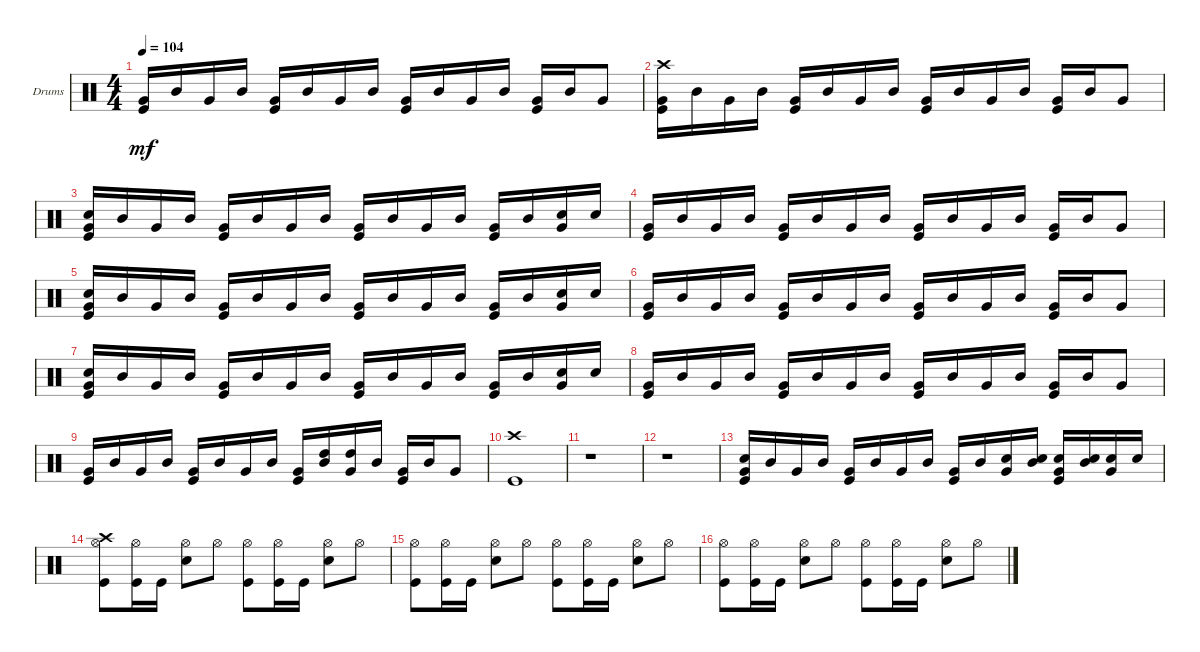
\defaultSystemsLayout 4
\bracketExtendMode groupsimilarinstruments
\firstSystemTrackNameOrientation horizontal
\otherSystemsTrackNameOrientation horizontal
\track ("Drum" "Drums") {instrument percussion}
\staff {score}
\articulation defaults
\ts (4 4)
\tempo 104
\clef neutral
\ks c
("Kick (hit)" "Very Low Tom (hit)").16{dy mf} "Mid Tom (hit)".16 "Very Low Tom (hit)".16 "Mid Tom (hit)".16 ("Kick (hit)" "Very Low Tom (hit)").16 "Mid Tom (hit)".16 "Very Low Tom (hit)".16 "Mid Tom (hit)".16 ("Very Low Tom (hit)" "Kick (hit)").16 "Mid Tom (hit)".16 "Very Low Tom (hit)".16 "Mid Tom (hit)".16 ("Very Low Tom (hit)" "Kick (hit)").16 "Mid Tom (hit)".16 "Very Low Tom (hit)".8 |
("Kick (hit)" "Very Low Tom (hit)" "Crash high (hit)").16 "Mid Tom (hit)".16 "Very Low Tom (hit)".16 "Mid Tom (hit)".16 ("Very Low Tom (hit)" "Kick (hit)").16 "Mid Tom (hit)".16 "Very Low Tom (hit)".16 "Mid Tom (hit)".16 ("Very Low Tom (hit)" "Kick (hit)").16 "Mid Tom (hit)".16 "Very Low Tom (hit)".16 "Mid Tom (hit)".16 ("Kick (hit)" "Very Low Tom (hit)").16 "Mid Tom (hit)".16 "Very Low Tom (hit)".8 |
("Kick (hit)" "Very Low Tom (hit)" "Snare (hit) 2").16 "Mid Tom (hit)".16 "Very Low Tom (hit)".16 "Mid Tom (hit)".16 ("Very Low Tom (hit)" "Kick (hit)").16 "Mid Tom (hit)".16 "Very Low Tom (hit)".16 "Mid Tom (hit)".16 ("Kick (hit)" "Very Low Tom (hit)").16 "Mid Tom (hit)".16 "Very Low Tom (hit)".16 "Mid Tom (hit)".16 ("Very Low Tom (hit)" "Kick (hit)").16 "Mid Tom (hit)".16 ("Snare (hit) 2" "Very Low Tom (hit)").16 "Snare (hit) 2".16 |
("Kick (hit)" "Very Low Tom (hit)").16 "Mid Tom (hit)".16 "Very Low Tom (hit)".16 "Mid Tom (hit)".16 ("Very Low Tom (hit)" "Kick (hit)").16 "Mid Tom (hit)".16 "Very Low Tom (hit)".16 "Mid Tom (hit)".16 ("Kick (hit)" "Very Low Tom (hit)").16 "Mid Tom (hit)".16 "Very Low Tom (hit)".16 "Mid Tom (hit)".16 ("Kick (hit)" "Very Low Tom (hit)").16 "Mid Tom (hit)".16 "Very Low Tom (hit)".8 |
("Kick (hit)" "Very Low Tom (hit)" "Snare (hit) 2").16 "Mid Tom (hit)".16 "Very Low Tom (hit)".16 "Mid Tom (hit)".16 ("Kick (hit)" "Very Low Tom (hit)").16 "Mid Tom (hit)".16 "Very Low Tom (hit)".16 "Mid Tom (hit)".16 ("Very Low Tom (hit)" "Kick (hit)").16 "Mid Tom (hit)".16 "Very Low Tom (hit)".16 "Mid Tom (hit)".16 ("Kick (hit)" "Very Low Tom (hit)").16 "Mid Tom (hit)".16 ("Snare (hit) 2" "Very Low Tom (hit)").16 "Snare (hit) 2".16 |
("Kick (hit)" "Very Low Tom (hit)").16 "Mid Tom (hit)".16 "Very Low Tom (hit)".16 "Mid Tom (hit)".16 ("Very Low Tom (hit)" "Kick (hit)").16 "Mid Tom (hit)".16 "Very Low Tom (hit)".16 "Mid Tom (hit)".16 ("Very Low Tom (hit)" "Kick (hit)").16 "Mid Tom (hit)".16 "Very Low Tom (hit)".16 "Mid Tom (hit)".16 ("Kick (hit)" "Very Low Tom (hit)").16 "Mid Tom (hit)".16 "Very Low Tom (hit)".8 |
("Kick (hit)" "Snare (hit) 2" "Very Low Tom (hit)").16 "Mid Tom (hit)".16 "Very Low Tom (hit)".16 "Mid Tom (hit)".16 ("Very Low Tom (hit)" "Kick (hit)").16 "Mid Tom (hit)".16 "Very Low Tom (hit)".16 "Mid Tom (hit)".16 ("Very Low Tom (hit)" "Kick (hit)").16 "Mid Tom (hit)".16 "Very Low Tom (hit)".16 "Mid Tom (hit)".16 ("Kick (hit)" "Very Low Tom (hit)").16 "Mid Tom (hit)".16 ("Snare (hit) 2" "Very Low Tom (hit)").16 "Snare (hit) 2".16 |
("Kick (hit)" "Very Low Tom (hit)").16 "Mid Tom (hit)".16 "Very Low Tom (hit)".16 "Mid Tom (hit)".16 ("Kick (hit)" "Very Low Tom (hit)").16 "Mid Tom (hit)".16 "Very Low Tom (hit)".16 "Mid Tom (hit)".16 ("Very Low Tom (hit)" "Kick (hit)").16 "Mid Tom (hit)".16 "Very Low Tom (hit)".16 "Mid Tom (hit)".16 ("Kick (hit)" "Very Low Tom (hit)").16 "Mid Tom (hit)".16 "Very Low Tom (hit)".8 |
("Very Low Tom (hit)" "Kick (hit)").16 "Mid Tom (hit)".16 "Very Low Tom (hit)".16 "Mid Tom (hit)".16 ("Very Low Tom (hit)" "Kick (hit)").16 "Mid Tom (hit)".16 "Very Low Tom (hit)".16 "Mid Tom (hit)".16 ("Kick (hit)" "Very Low Tom (hit)").16 ("Mid Tom (hit)" "High Tom (hit)").16 ("Very Low Tom (hit)" "High Tom (hit)").16 "Mid Tom (hit)".16 ("Kick (hit)" "Very Low Tom (hit)").16 "Mid Tom (hit)".16 "Very Low Tom (hit)".8 |
("Kick (hit)" "Crash high (hit)").1 |
r.1 |
r.1 |
("Kick (hit)" "Very Low Tom (hit)" "Snare (hit) 2").16 "Mid Tom (hit)".16 "Very Low Tom (hit)".16 "Mid Tom (hit)".16 ("Very Low Tom (hit)" "Kick (hit)").16 "Mid Tom (hit)".16 "Very Low Tom (hit)".16 "Mid Tom (hit)".16 ("Kick (hit)" "Very Low Tom (hit)").16 "Mid Tom (hit)".16 ("Snare (hit) 2" "Very Low Tom (hit)").16 ("Mid Tom (hit)" "Snare (hit) 2").16 ("Snare (hit) 2" "Kick (hit)" "Very Low Tom (hit)").16 ("Mid Tom (hit)" "Snare (hit) 2").16 ("Very Low Tom (hit)" "Snare (hit) 2").16 "Snare (hit) 2".16 |
("Crash high (hit)" "Hi-Hat (open)" "Kick (hit)").8 ("Kick (hit)" "Hi-Hat (open)").16 "Kick (hit)".16 ("Snare (hit) 2" "Hi-Hat (open)").8 "Hi-Hat (open)".8 ("Kick (hit)" "Hi-Hat (open)").8 ("Hi-Hat (open)" "Kick (hit)").16 "Kick (hit)".16 ("Snare (hit) 2" "Hi-Hat (open)").8 "Hi-Hat (open)".8 |
("Hi-Hat (open)" "Kick (hit)").8 ("Hi-Hat (open)" "Kick (hit)").16 "Kick (hit)".16 ("Snare (hit) 2" "Hi-Hat (open)").8 "Hi-Hat (open)".8 ("Kick (hit)" "Hi-Hat (open)").8 ("Hi-Hat (open)" "Kick (hit)").16 "Kick (hit)".16 ("Snare (hit) 2" "Hi-Hat (open)").8 "Hi-Hat (open)".8 |
("Kick (hit)" "Hi-Hat (open)").8 ("Hi-Hat (open)" "Kick (hit)").16 "Kick (hit)".16 ("Hi-Hat (open)" "Snare (hit) 2").8 "Hi-Hat (open)".8 ("Hi-Hat (open)" "Kick (hit)").8 ("Kick (hit)" "Hi-Hat (open)").16 "Kick (hit)".16 ("Hi-Hat (open)" "Snare (hit) 2").8 "Hi-Hat (open)".8
